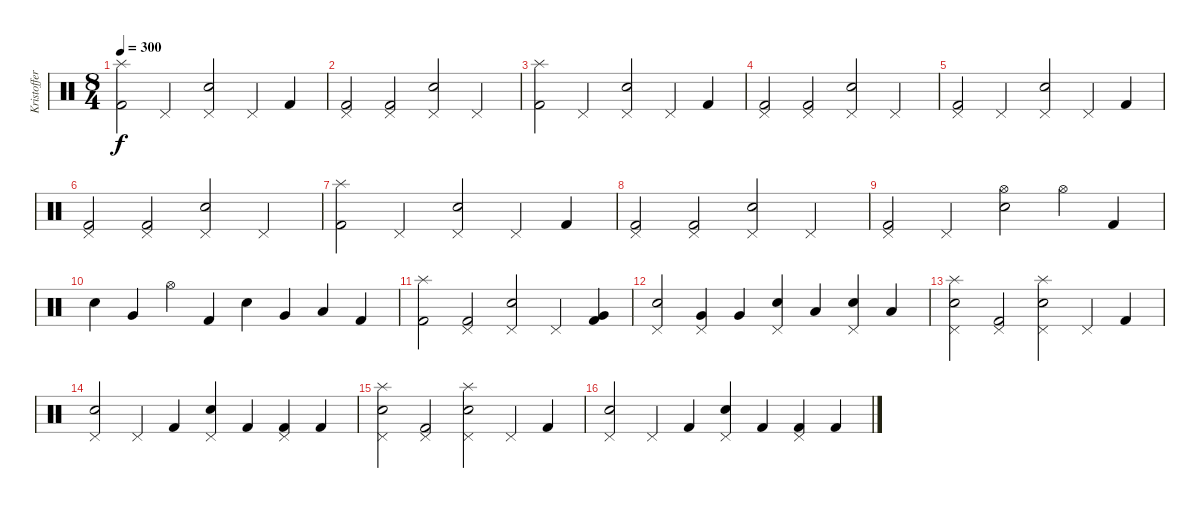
\track ("Kristoffer Söderström" "Kristoffer") {instrument percussion}
\staff {score}
\articulation defaults
\ts (8 4)
\tempo 300
\clef neutral
\ks c
("Splash (hit)" "Kick (hit) 2").2{dy f} "Pedal Hi-Hat (hit)".2 ("Snare (hit) 2" "Pedal Hi-Hat (hit)").2 "Pedal Hi-Hat (hit)".4 "Kick (hit) 2".4 |
("Pedal Hi-Hat (hit)" "Kick (hit) 2").2 ("Pedal Hi-Hat (hit)" "Kick (hit) 2").2 ("Snare (hit) 2" "Pedal Hi-Hat (hit)").2 "Pedal Hi-Hat (hit)".2 |
("Splash (hit)" "Kick (hit) 2").2 "Pedal Hi-Hat (hit)".2 ("Snare (hit) 2" "Pedal Hi-Hat (hit)").2 "Pedal Hi-Hat (hit)".4 "Kick (hit) 2".4 |
("Pedal Hi-Hat (hit)" "Kick (hit) 2").2 ("Pedal Hi-Hat (hit)" "Kick (hit) 2").2 ("Snare (hit) 2" "Pedal Hi-Hat (hit)").2 "Pedal Hi-Hat (hit)".2 |
("Pedal Hi-Hat (hit)" "Kick (hit) 2").2 "Pedal Hi-Hat (hit)".2 ("Snare (hit) 2" "Pedal Hi-Hat (hit)").2 "Pedal Hi-Hat (hit)".4 "Kick (hit) 2".4 |
("Pedal Hi-Hat (hit)" "Kick (hit) 2").2 ("Pedal Hi-Hat (hit)" "Kick (hit) 2").2 ("Snare (hit) 2" "Pedal Hi-Hat (hit)").2 "Pedal Hi-Hat (hit)".2 |
("Splash (hit)" "Kick (hit) 2").2 "Pedal Hi-Hat (hit)".2 ("Snare (hit) 2" "Pedal Hi-Hat (hit)").2 "Pedal Hi-Hat (hit)".4 "Kick (hit) 2".4 |
("Pedal Hi-Hat (hit)" "Kick (hit) 2").2 ("Pedal Hi-Hat (hit)" "Kick (hit) 2").2 ("Snare (hit) 2" "Pedal Hi-Hat (hit)").2 "Pedal Hi-Hat (hit)".2 |
("Pedal Hi-Hat (hit)" "Kick (hit) 2").2 "Pedal Hi-Hat (hit)".2 ("Snare (hit) 2" "Hi-Hat (open)").2 "Hi-Hat (open)".4 "Kick (hit) 2".4 |
"Snare (hit) 2".4 "Very Low Tom (hit)".4 "Hi-Hat (open)".4 "Kick (hit) 2".4 "Snare (hit) 2".4 "Very Low Tom (hit)".4 "Low Floor Tom (hit)".4 "Kick (hit) 2".4 |
("Splash (hit)" "Kick (hit) 2").2 ("Pedal Hi-Hat (hit)" "Kick (hit) 2").2 ("Snare (hit) 2" "Pedal Hi-Hat (hit)").2 "Pedal Hi-Hat (hit)".4 ("Very Low Tom (hit)" "Kick (hit) 2").4 |
("Snare (hit) 2" "Pedal Hi-Hat (hit)").2 ("Very Low Tom (hit)" "Pedal Hi-Hat (hit)").4 "Very Low Tom (hit)".4 ("Snare (hit) 2" "Pedal Hi-Hat (hit)").4 "Low Floor Tom (hit)".4 ("Snare (hit) 2" "Pedal Hi-Hat (hit)").4 "Low Floor Tom (hit)".4 |
("Splash (hit)" "Snare (hit) 2" "Pedal Hi-Hat (hit)").2 ("Pedal Hi-Hat (hit)" "Kick (hit) 2").2 ("Splash (hit)" "Snare (hit) 2" "Pedal Hi-Hat (hit)").2 "Pedal Hi-Hat (hit)".4 "Kick (hit) 2".4 |
("Snare (hit) 2" "Pedal Hi-Hat (hit)").2 "Pedal Hi-Hat (hit)".4 "Kick (hit) 2".4 ("Snare (hit) 2" "Pedal Hi-Hat (hit)").4 "Kick (hit) 2".4 ("Pedal Hi-Hat (hit)" "Kick (hit) 2").4 "Kick (hit) 2".4 |
("Splash (hit)" "Snare (hit) 2" "Pedal Hi-Hat (hit)").2 ("Pedal Hi-Hat (hit)" "Kick (hit) 2").2 ("Splash (hit)" "Snare (hit) 2" "Pedal Hi-Hat (hit)").2 "Pedal Hi-Hat (hit)".4 "Kick (hit) 2".4 |
("Snare (hit) 2" "Pedal Hi-Hat (hit)").2 "Pedal Hi-Hat (hit)".4 "Kick (hit) 2".4 ("Snare (hit) 2" "Pedal Hi-Hat (hit)").4 "Kick (hit) 2".4 ("Pedal Hi-Hat (hit)" "Kick (hit) 2").4 "Kick (hit) 2".4
